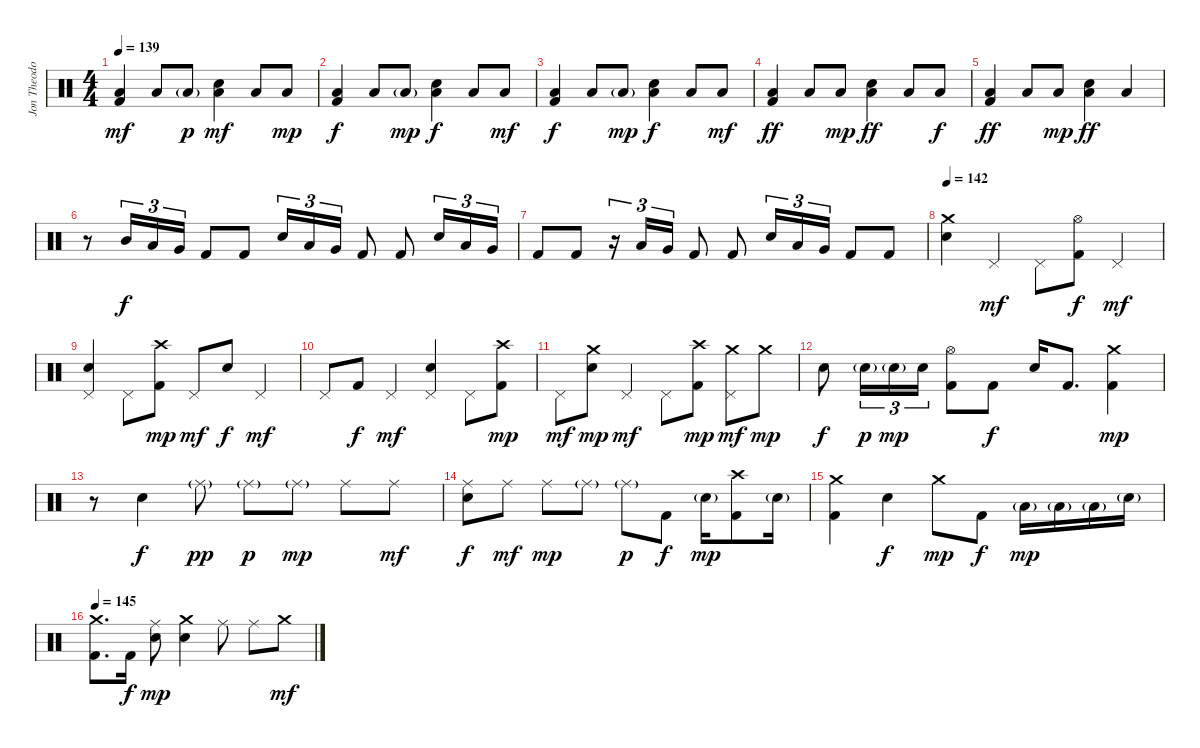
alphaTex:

\track ("Jon Theodore - Drums" "Jon Theodo") {instrument percussion}
\staff {score}
\articulation defaults
\ts (4 4)
\tempo 139
\clef neutral
\ks c
("Low Floor Tom (hit)" "Kick (hit) 2").4{dy mf} "Low Floor Tom (hit)".8 "Low Floor Tom (hit)"{g}.8{dy p} ("Electric Snare (hit)" "Low Floor Tom (hit)").4{dy mf} "Low Tom (hit)".8 "Low Tom (hit)".8{dy mp} |
("Low Floor Tom (hit)" "Kick (hit) 2").4{dy f} "Low Floor Tom (hit)".8 "Low Floor Tom (hit)"{g}.8{dy mp} ("Electric Snare (hit)" "Low Floor Tom (hit)").4{dy f} "Low Tom (hit)".8 "Low Tom (hit)".8{dy mf} |
("Low Floor Tom (hit)" "Kick (hit) 2").4{dy f} "Low Floor Tom (hit)".8 "Low Floor Tom (hit)"{g}.8{dy mp} ("Electric Snare (hit)" "Low Floor Tom (hit)").4{dy f} "Low Tom (hit)".8 "Low Tom (hit)".8{dy mf} |
("Low Floor Tom (hit)" "Kick (hit) 2").4{dy ff} "Low Floor Tom (hit)".8 "Low Floor Tom (hit)".8{dy mp} ("Electric Snare (hit)" "Low Floor Tom (hit)").4{dy ff} "Low Tom (hit)".8 "Low Tom (hit)".8{dy f} |
("Low Floor Tom (hit)" "Kick (hit) 2").4{dy ff} "Low Floor Tom (hit)".8 "Low Floor Tom (hit)".8{dy mp} ("Electric Snare (hit)" "Low Floor Tom (hit)").4{dy ff} "Low Tom (hit)".4 |
r.8 "Mid Tom (hit)".16{tu (3 2) dy f} "Low Tom (hit)".16{tu (3 2)} "Very Low Tom (hit)".16{tu (3 2)} "Kick (hit) 2".8 "Kick (hit) 2".8 "Electric Snare (hit)".16{tu (3 2)} "Low Tom (hit)".16{tu (3 2)} "Very Low Tom (hit)".16{tu (3 2)} "Kick (hit) 2".8 "Kick (hit) 2".8 "Electric Snare (hit)".16{tu (3 2)} "Low Tom (hit)".16{tu (3 2)} "Very Low Tom (hit)".16{tu (3 2)} |
"Kick (hit) 2".8 "Kick (hit) 2".8 r.16{tu (3 2)} "Low Tom (hit)".16{tu (3 2)} "Very Low Tom (hit)".16{tu (3 2)} "Kick (hit) 2".8 "Kick (hit) 2".8 "Electric Snare (hit)".16{tu (3 2)} "Low Tom (hit)".16{tu (3 2)} "Very Low Tom (hit)".16{tu (3 2)} "Kick (hit) 2".8 "Kick (hit) 2".8 |
\tempo 142
("Crash medium (hit)" "Electric Snare (hit)").4 "Pedal Hi-Hat (hit)".4{dy mf} "Pedal Hi-Hat (hit)".8 ("Hi-Hat (open)" "Kick (hit) 2").8{dy f} "Pedal Hi-Hat (hit)".4{dy mf} |
("Electric Snare (hit)" "Pedal Hi-Hat (hit)").4 "Pedal Hi-Hat (hit)".8 ("Crash high (hit)" "Kick (hit) 2").8{dy mp} "Pedal Hi-Hat (hit)".8{dy mf} "Electric Snare (hit)".8{dy f} "Pedal Hi-Hat (hit)".4{dy mf} |
"Pedal Hi-Hat (hit)".8 "Kick (hit) 2".8{dy f} "Pedal Hi-Hat (hit)".4{dy mf} ("Electric Snare (hit)" "Pedal Hi-Hat (hit)").4 "Pedal Hi-Hat (hit)".8 ("Crash high (hit)" "Kick (hit) 2").8{dy mp} |
"Pedal Hi-Hat (hit)".8{dy mf} ("Crash medium (hit)" "Electric Snare (hit)").8{dy mp} "Pedal Hi-Hat (hit)".4{dy mf} "Pedal Hi-Hat (hit)".8 ("Crash high (hit)" "Kick (hit) 2").8{dy mp} ("Crash medium (hit)" "Pedal Hi-Hat (hit)").8{dy mf} "Crash medium (hit)".8{dy mp} |
"Electric Snare (hit)".8{dy f} "Electric Snare (hit)"{g}.16{tu (3 2) dy p} "Electric Snare (hit)"{g}.16{tu (3 2) dy mp} "Electric Snare (hit)".16{tu (3 2)} ("Hi-Hat (open)" "Kick (hit) 2").8 "Kick (hit) 2".8{dy f} "Electric Snare (hit)".16 "Kick (hit) 2".8{d} ("Crash medium (hit)" "Kick (hit) 2").4{dy mp} |
r.8 "Electric Snare (hit)".4{dy f} "Ride (middle)"{g}.8{dy pp} "Ride (middle)"{g}.8{dy p} "Ride (middle)"{g}.8{dy mp} "Ride (middle)".8 "Ride (middle)".8{dy mf} |
("Ride (middle)" "Electric Snare (hit)").8{dy f} "Ride (middle)".8{dy mf} "Ride (middle)".8{dy mp} "Ride (middle)"{g}.8 "Ride (middle)"{g}.8{dy p} "Kick (hit) 2".8{dy f} "Electric Snare (hit)"{g}.16{dy mp} ("Crash high (hit)" "Kick (hit) 2").8 "Electric Snare (hit)"{g}.16 |
("Crash medium (hit)" "Kick (hit) 2").4 "Electric Snare (hit)".4{dy f} "Crash medium (hit)".8{dy mp} "Kick (hit) 2".8{dy f} "Low Tom (hit)"{g}.16{dy mp} "Low Tom (hit)"{g}.16 "Low Tom (hit)"{g}.16 "Electric Snare (hit)"{g}.16 |
\tempo 145
("Crash medium (hit)" "Kick (hit) 2").8{d} "Kick (hit) 2".16{dy f} ("Ride (middle)" "Electric Snare (hit)").8{dy mp} ("Crash medium (hit)" "Electric Snare (hit)").4 "Ride (middle)".8 "Ride (middle)".8 "Crash medium (hit)".8{dy mf}
